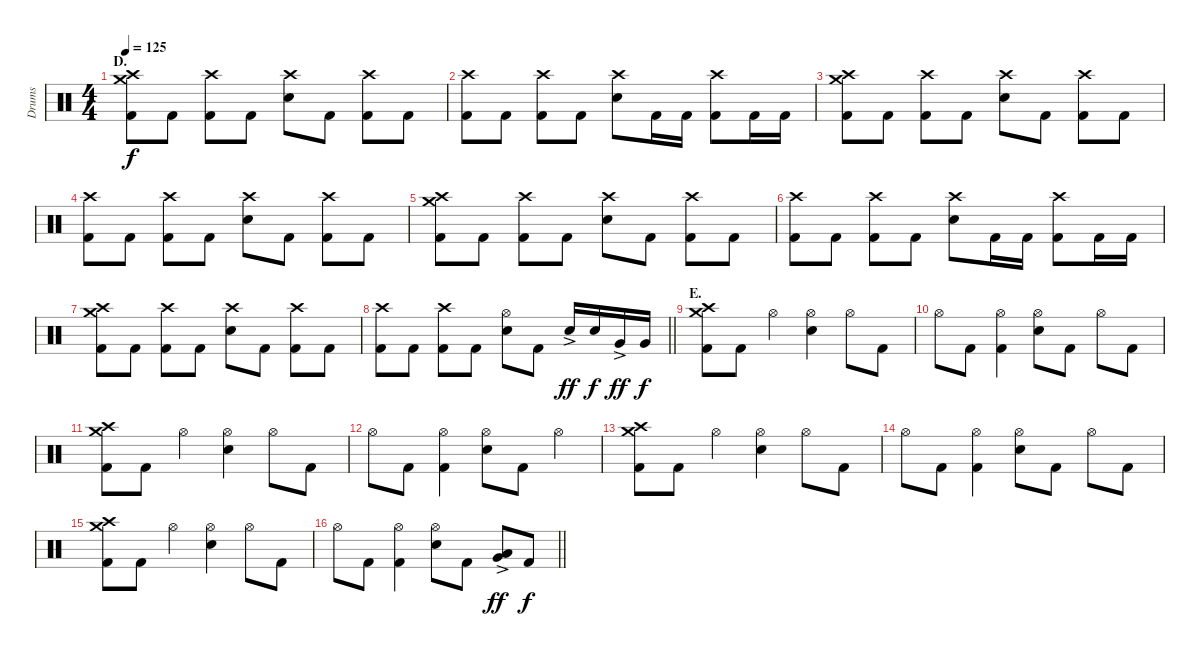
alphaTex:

\track ("Drums" "Drums") {instrument percussion}
\staff {score}
\articulation defaults
\ts (4 4)
\section ("" "D.")
\tempo 125
\clef neutral
\ks c
("Crash medium (hit)" "Crash high (hit)" "Kick (hit) 2").8{dy f} "Kick (hit) 2".8 ("Crash high (hit)" "Kick (hit) 2").8 "Kick (hit) 2".8 ("Crash high (hit)" "Electric Snare (hit)").8 "Kick (hit) 2".8 ("Crash high (hit)" "Kick (hit) 2").8 "Kick (hit) 2".8 |
("Crash high (hit)" "Kick (hit) 2").8 "Kick (hit) 2".8 ("Crash high (hit)" "Kick (hit) 2").8 "Kick (hit) 2".8 ("Crash high (hit)" "Electric Snare (hit)").8 "Kick (hit) 2".16 "Kick (hit) 2".16 ("Crash high (hit)" "Kick (hit) 2").8 "Kick (hit) 2".16 "Kick (hit) 2".16 |
("Crash medium (hit)" "Crash high (hit)" "Kick (hit) 2").8 "Kick (hit) 2".8 ("Crash high (hit)" "Kick (hit) 2").8 "Kick (hit) 2".8 ("Crash high (hit)" "Electric Snare (hit)").8 "Kick (hit) 2".8 ("Crash high (hit)" "Kick (hit) 2").8 "Kick (hit) 2".8 |
("Crash high (hit)" "Kick (hit) 2").8 "Kick (hit) 2".8 ("Crash high (hit)" "Kick (hit) 2").8 "Kick (hit) 2".8 ("Crash high (hit)" "Electric Snare (hit)").8 "Kick (hit) 2".8 ("Crash high (hit)" "Kick (hit) 2").8 "Kick (hit) 2".8 |
("Crash medium (hit)" "Crash high (hit)" "Kick (hit) 2").8 "Kick (hit) 2".8 ("Crash high (hit)" "Kick (hit) 2").8 "Kick (hit) 2".8 ("Crash high (hit)" "Electric Snare (hit)").8 "Kick (hit) 2".8 ("Crash high (hit)" "Kick (hit) 2").8 "Kick (hit) 2".8 |
("Crash high (hit)" "Kick (hit) 2").8 "Kick (hit) 2".8 ("Crash high (hit)" "Kick (hit) 2").8 "Kick (hit) 2".8 ("Crash high (hit)" "Electric Snare (hit)").8 "Kick (hit) 2".16 "Kick (hit) 2".16 ("Crash high (hit)" "Kick (hit) 2").8 "Kick (hit) 2".16 "Kick (hit) 2".16 |
("Crash medium (hit)" "Crash high (hit)" "Kick (hit) 2").8 "Kick (hit) 2".8 ("Crash high (hit)" "Kick (hit) 2").8 "Kick (hit) 2".8 ("Crash high (hit)" "Electric Snare (hit)").8 "Kick (hit) 2".8 ("Crash high (hit)" "Kick (hit) 2").8 "Kick (hit) 2".8 |
\barLineRight lightlight
("Crash high (hit)" "Kick (hit) 2").8 "Kick (hit) 2".8 ("Crash high (hit)" "Kick (hit) 2").8 "Kick (hit) 2".8 ("Hi-Hat (open)" "Electric Snare (hit)").8 "Kick (hit) 2".8 "Electric Snare (hit)"{ac}.16{dy ff} "Electric Snare (hit)".16{dy f} "Very Low Tom (hit)"{ac}.16{dy ff} "Very Low Tom (hit)".16{dy f} |
\section ("" "E.")
("Crash medium (hit)" "Crash high (hit)" "Kick (hit) 2").8 "Kick (hit) 2".8 "Hi-Hat (open)".4 ("Hi-Hat (open)" "Electric Snare (hit)").4 "Hi-Hat (open)".8 "Kick (hit) 2".8 |
"Hi-Hat (open)".8 "Kick (hit) 2".8 ("Hi-Hat (open)" "Kick (hit) 2").4 ("Hi-Hat (open)" "Electric Snare (hit)").8 "Kick (hit) 2".8 "Hi-Hat (open)".8 "Kick (hit) 2".8 |
("Crash medium (hit)" "Crash high (hit)" "Kick (hit) 2").8 "Kick (hit) 2".8 "Hi-Hat (open)".4 ("Hi-Hat (open)" "Electric Snare (hit)").4 "Hi-Hat (open)".8 "Kick (hit) 2".8 |
"Hi-Hat (open)".8 "Kick (hit) 2".8 ("Hi-Hat (open)" "Kick (hit) 2").4 ("Hi-Hat (open)" "Electric Snare (hit)").8 "Kick (hit) 2".8 "Hi-Hat (open)".4 |
("Crash medium (hit)" "Crash high (hit)" "Kick (hit) 2").8 "Kick (hit) 2".8 "Hi-Hat (open)".4 ("Hi-Hat (open)" "Electric Snare (hit)").4 "Hi-Hat (open)".8 "Kick (hit) 2".8 |
"Hi-Hat (open)".8 "Kick (hit) 2".8 ("Hi-Hat (open)" "Kick (hit) 2").4 ("Hi-Hat (open)" "Electric Snare (hit)").8 "Kick (hit) 2".8 "Hi-Hat (open)".8 "Kick (hit) 2".8 |
("Crash medium (hit)" "Crash high (hit)" "Kick (hit) 2").8 "Kick (hit) 2".8 "Hi-Hat (open)".4 ("Hi-Hat (open)" "Electric Snare (hit)").4 "Hi-Hat (open)".8 "Kick (hit) 2".8 |
\barLineRight lightlight "Hi-Hat (open)".8 "Kick (hit) 2".8
("Hi-Hat (open)" "Kick (hit) 2").4 ("Hi-Hat (open)" "Electric Snare (hit)").8 "Kick (hit) 2".8 ("Very Low Tom (hit)" "Low Floor Tom (hit)"{ac}).8{bu 120 dy ff} "Kick (hit) 2".8{dy f}
